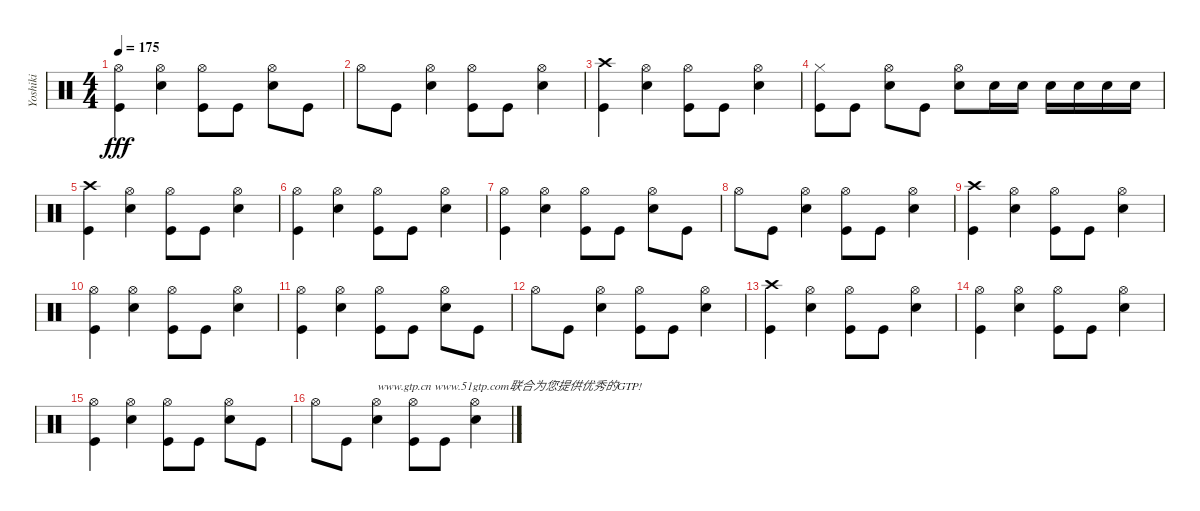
\track ("Yoshiki" "Yoshiki") {instrument percussion}
\staff {score}
\articulation defaults
\ts (4 4)
\tempo 175
\clef neutral
\ks c
("Hi-Hat (open)" "Kick (hit)").4{dy fff} ("Hi-Hat (open)" "Snare (hit) 2").4 ("Hi-Hat (open)" "Kick (hit)").8 "Kick (hit)".8 ("Hi-Hat (open)" "Snare (hit) 2").8 "Kick (hit)".8 |
"Hi-Hat (open)".8 "Kick (hit)".8 ("Hi-Hat (open)" "Snare (hit) 2").4 ("Hi-Hat (open)" "Kick (hit)").8 "Kick (hit)".8 ("Hi-Hat (open)" "Snare (hit) 2").4 |
("Crash high (hit)" "Kick (hit)").4 ("Hi-Hat (open)" "Snare (hit) 2").4 ("Hi-Hat (open)" "Kick (hit)").8 "Kick (hit)".8 ("Hi-Hat (open)" "Snare (hit) 2").4 |
("Hi-Hat (closed)" "Kick (hit)").8 "Kick (hit)".8 ("Hi-Hat (open)" "Snare (hit) 2").8 "Kick (hit)".8 ("Hi-Hat (open)" "Snare (hit) 2").8 "Snare (hit) 2".16 "Snare (hit) 2".16 "Snare (hit) 2".16 "Snare (hit) 2".16 "Snare (hit) 2".16 "Snare (hit) 2".16 |
("Crash high (hit)" "Kick (hit)").4 ("Hi-Hat (open)" "Snare (hit) 2").4 ("Hi-Hat (open)" "Kick (hit)").8 "Kick (hit)".8 ("Hi-Hat (open)" "Snare (hit) 2").4 |
("Hi-Hat (open)" "Kick (hit)").4 ("Hi-Hat (open)" "Snare (hit) 2").4 ("Hi-Hat (open)" "Kick (hit)").8 "Kick (hit)".8 ("Hi-Hat (open)" "Snare (hit) 2").4 |
("Hi-Hat (open)" "Kick (hit)").4 ("Hi-Hat (open)" "Snare (hit) 2").4 ("Hi-Hat (open)" "Kick (hit)").8 "Kick (hit)".8 ("Hi-Hat (open)" "Snare (hit) 2").8 "Kick (hit)".8 |
"Hi-Hat (open)".8 "Kick (hit)".8 ("Hi-Hat (open)" "Snare (hit) 2").4 ("Hi-Hat (open)" "Kick (hit)").8 "Kick (hit)".8 ("Hi-Hat (open)" "Snare (hit) 2").4 |
("Crash high (hit)" "Kick (hit)").4 ("Hi-Hat (open)" "Snare (hit) 2").4 ("Hi-Hat (open)" "Kick (hit)").8 "Kick (hit)".8 ("Hi-Hat (open)" "Snare (hit) 2").4 |
("Hi-Hat (open)" "Kick (hit)").4 ("Hi-Hat (open)" "Snare (hit) 2").4 ("Hi-Hat (open)" "Kick (hit)").8 "Kick (hit)".8 ("Hi-Hat (open)" "Snare (hit) 2").4 |
("Hi-Hat (open)" "Kick (hit)").4 ("Hi-Hat (open)" "Snare (hit) 2").4 ("Hi-Hat (open)" "Kick (hit)").8 "Kick (hit)".8 ("Hi-Hat (open)" "Snare (hit) 2").8 "Kick (hit)".8 |
"Hi-Hat (open)".8 "Kick (hit)".8 ("Hi-Hat (open)" "Snare (hit) 2").4 ("Hi-Hat (open)" "Kick (hit)").8 "Kick (hit)".8 ("Hi-Hat (open)" "Snare (hit) 2").4 |
("Crash high (hit)" "Kick (hit)").4 ("Hi-Hat (open)" "Snare (hit) 2").4 ("Hi-Hat (open)" "Kick (hit)").8 "Kick (hit)".8 ("Hi-Hat (open)" "Snare (hit) 2").4 |
("Hi-Hat (open)" "Kick (hit)").4 ("Hi-Hat (open)" "Snare (hit) 2").4 ("Hi-Hat (open)" "Kick (hit)").8 "Kick (hit)".8 ("Hi-Hat (open)" "Snare (hit) 2").4 |
("Hi-Hat (open)" "Kick (hit)").4 ("Hi-Hat (open)" "Snare (hit) 2").4 ("Hi-Hat (open)" "Kick (hit)").8 "Kick (hit)".8 ("Hi-Hat (open)" "Snare (hit) 2").8 "Kick (hit)".8 |
"Hi-Hat (open)".8 "Kick (hit)".8 ("Hi-Hat (open)" "Snare (hit) 2").4{txt "www.gtp.cn www.51gtp.com联合为您提供优秀的GTP!"} ("Hi-Hat (open)" "Kick (hit)").8 "Kick (hit)".8 ("Hi-Hat (open)" "Snare (hit) 2").4
